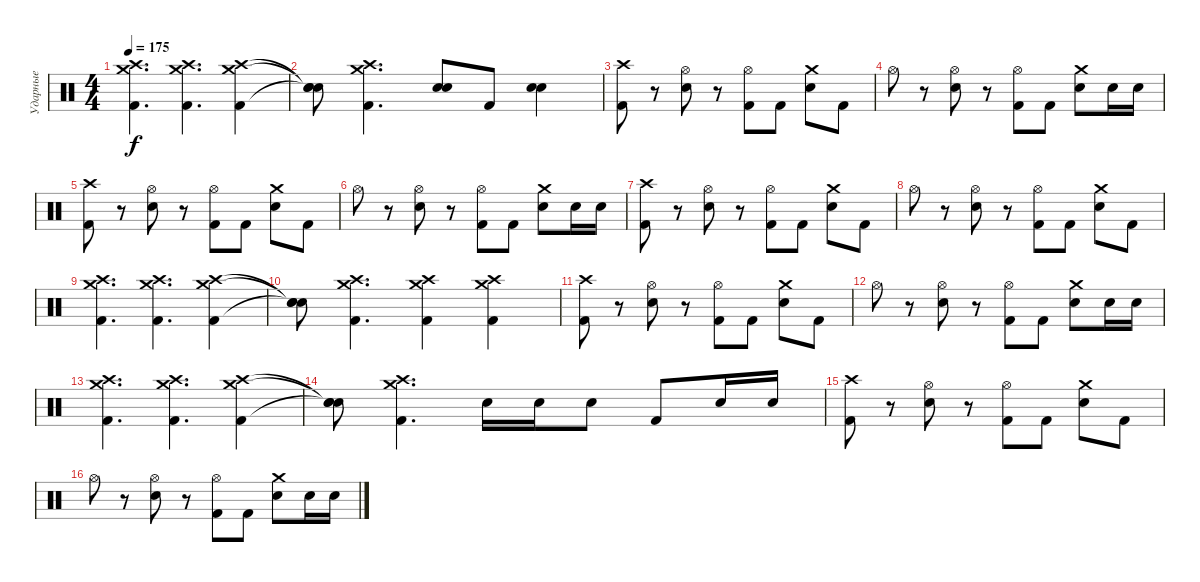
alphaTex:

\track ("Ударные" "Ударные") {instrument percussion}
\staff
\articulation defaults
\ts (4 4)
\tempo 175
\clef neutral
\ks c
("Kick (hit) 2" "Crash high (hit)" "Crash medium (hit)").4{d dy f} ("Kick (hit) 2" "Crash high (hit)" "Crash medium (hit)").4{d} ("Kick (hit) 2" "Crash high (hit)" "Crash medium (hit)").4 |
("Snare (hit)"{t} "Snare (hit)"{t} "Snare (hit)"{t}).8 ("Kick (hit) 2" "Crash high (hit)" "Crash medium (hit)").4{d} ("Electric Snare (hit)" "Electric Snare (hit)").8{bd 60} "Kick (hit) 2".8 ("Electric Snare (hit)" "Electric Snare (hit)").4{bd 60} |
("Kick (hit) 2" "Crash high (hit)").8 r.8 ("Electric Snare (hit)" "Hi-Hat (open)").8 r.8 ("Kick (hit) 2" "Hi-Hat (open)").8 "Kick (hit) 2".8 ("Electric Snare (hit)" "Crash medium (hit)").8 "Kick (hit) 2".8 |
"Hi-Hat (open)".8 r.8 ("Electric Snare (hit)" "Hi-Hat (open)").8 r.8 ("Kick (hit) 2" "Hi-Hat (open)").8 "Kick (hit) 2".8 ("Electric Snare (hit)" "Crash medium (hit)").8 "Electric Snare (hit)".16 "Electric Snare (hit)".16 |
("Kick (hit) 2" "Crash high (hit)").8 r.8 ("Electric Snare (hit)" "Hi-Hat (open)").8 r.8 ("Kick (hit) 2" "Hi-Hat (open)").8 "Kick (hit) 2".8 ("Electric Snare (hit)" "Crash medium (hit)").8 "Kick (hit) 2".8 |
"Hi-Hat (open)".8 r.8 ("Electric Snare (hit)" "Hi-Hat (open)").8 r.8 ("Kick (hit) 2" "Hi-Hat (open)").8 "Kick (hit) 2".8 ("Electric Snare (hit)" "Crash medium (hit)").8 "Electric Snare (hit)".16 "Electric Snare (hit)".16 |
("Kick (hit) 2" "Crash high (hit)").8 r.8 ("Electric Snare (hit)" "Hi-Hat (open)").8 r.8 ("Kick (hit) 2" "Hi-Hat (open)").8 "Kick (hit) 2".8 ("Electric Snare (hit)" "Crash medium (hit)").8 "Kick (hit) 2".8 |
"Hi-Hat (open)".8 r.8 ("Electric Snare (hit)" "Hi-Hat (open)").8 r.8 ("Kick (hit) 2" "Hi-Hat (open)").8 "Kick (hit) 2".8 ("Electric Snare (hit)" "Crash medium (hit)").8 "Kick (hit) 2".8 |
("Kick (hit) 2" "Crash high (hit)" "Crash medium (hit)").4{d} ("Kick (hit) 2" "Crash high (hit)" "Crash medium (hit)").4{d} ("Kick (hit) 2" "Crash high (hit)" "Crash medium (hit)").4 |
("Snare (hit)"{t} "Snare (hit)"{t} "Snare (hit)"{t}).8 ("Kick (hit) 2" "Crash high (hit)" "Crash medium (hit)").4{d} ("Kick (hit) 2" "Crash high (hit)" "Crash medium (hit)").4 ("Kick (hit) 2" "Crash high (hit)" "Crash medium (hit)").4 |
("Kick (hit) 2" "Crash high (hit)").8 r.8 ("Electric Snare (hit)" "Hi-Hat (open)").8 r.8 ("Kick (hit) 2" "Hi-Hat (open)").8 "Kick (hit) 2".8 ("Electric Snare (hit)" "Crash medium (hit)").8 "Kick (hit) 2".8 |
"Hi-Hat (open)".8 r.8 ("Electric Snare (hit)" "Hi-Hat (open)").8 r.8 ("Kick (hit) 2" "Hi-Hat (open)").8 "Kick (hit) 2".8 ("Electric Snare (hit)" "Crash medium (hit)").8 "Electric Snare (hit)".16 "Electric Snare (hit)".16 |
("Kick (hit) 2" "Crash high (hit)" "Crash medium (hit)").4{d} ("Kick (hit) 2" "Crash high (hit)" "Crash medium (hit)").4{d} ("Kick (hit) 2" "Crash high (hit)" "Crash medium (hit)").4 |
("Snare (hit)"{t} "Snare (hit)"{t} "Snare (hit)"{t}).8 ("Kick (hit) 2" "Crash high (hit)" "Crash medium (hit)").4{d} "Electric Snare (hit)".16 "Electric Snare (hit)".16 "Electric Snare (hit)".8 "Kick (hit) 2".8 "Electric Snare (hit)".16 "Electric Snare (hit)".16 |
("Kick (hit) 2" "Crash high (hit)").8 r.8 ("Electric Snare (hit)" "Hi-Hat (open)").8 r.8 ("Kick (hit) 2" "Hi-Hat (open)").8 "Kick (hit) 2".8 ("Electric Snare (hit)" "Crash medium (hit)").8 "Kick (hit) 2".8 |
"Hi-Hat (open)".8 r.8 ("Electric Snare (hit)" "Hi-Hat (open)").8 r.8 ("Kick (hit) 2" "Hi-Hat (open)").8 "Kick (hit) 2".8 ("Electric Snare (hit)" "Crash medium (hit)").8 "Electric Snare (hit)".16 "Electric Snare (hit)".16
